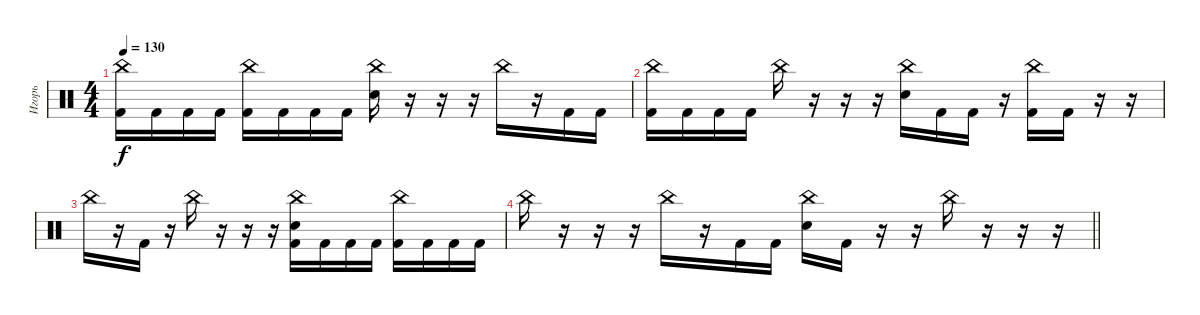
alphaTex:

\track ("Игорь" "Игорь") {instrument percussion}
\staff {score}
\articulation defaults
\ts (4 4)
\tempo 130
\clef neutral
\ks c
("China (hit)" "Kick (hit) 2").16{dy f} "Kick (hit) 2".16 "Kick (hit) 2".16 "Kick (hit) 2".16 ("China (hit)" "Kick (hit) 2").16 "Kick (hit) 2".16 "Kick (hit) 2".16 "Kick (hit) 2".16 ("China (hit)" "Electric Snare (hit)").16 r.16 r.16 r.16 "China (hit)".16 r.16 "Kick (hit) 2".16 "Kick (hit) 2".16 |
("China (hit)" "Kick (hit) 2").16 "Kick (hit) 2".16 "Kick (hit) 2".16 "Kick (hit) 2".16 "China (hit)".16 r.16 r.16 r.16 ("China (hit)" "Electric Snare (hit)").16 "Kick (hit) 2".16 "Kick (hit) 2".16 r.16 ("China (hit)" "Kick (hit) 2").16 "Kick (hit) 2".16 r.16 r.16 |
"China (hit)".16 r.16 "Kick (hit) 2".16 r.16 "China (hit)".16 r.16 r.16 r.16 ("China (hit)" "Electric Snare (hit)" "Kick (hit) 2").16 "Kick (hit) 2".16 "Kick (hit) 2".16 "Kick (hit) 2".16 ("China (hit)" "Kick (hit) 2").16 "Kick (hit) 2".16 "Kick (hit) 2".16 "Kick (hit) 2".16 |
\barLineRight lightlight "China (hit)".16
r.16 r.16 r.16 "China (hit)".16 r.16 "Kick (hit) 2".16 "Kick (hit) 2".16 ("China (hit)" "Electric Snare (hit)").16 "Kick (hit) 2".16 r.16 r.16 "China (hit)".16 r.16 r.16 r.16
